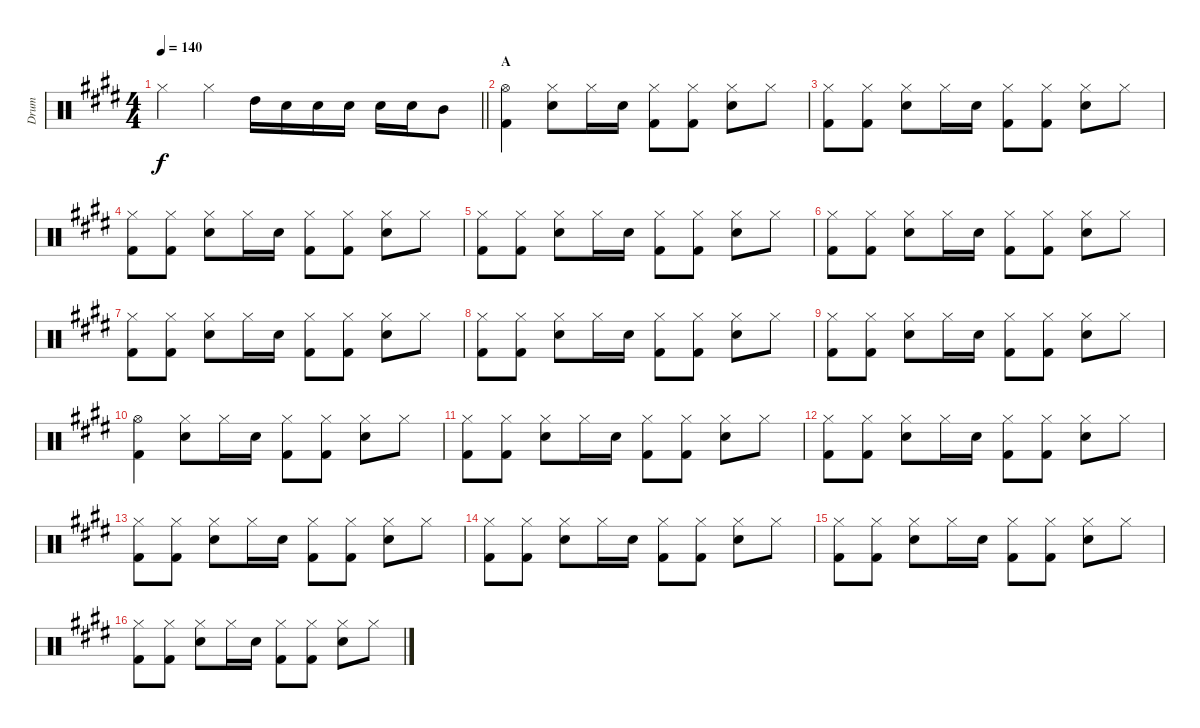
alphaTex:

\track ("Drum" "Drum") {instrument percussion}
\staff {score}
\articulation defaults
\ts (4 4)
\tempo 140
\clef neutral
\barLineRight lightlight
\ks c#minor "Hi-Hat (closed)".4{dy f} "Hi-Hat (closed)".4 "High Tom (hit)".16 "Snare (hit) 2".16 "Snare (hit) 2".16 "Snare (hit) 2".16 "Snare (hit) 2".16 "Snare (hit) 2".16 "Mid Tom (hit)".8
|
\section ("" "A")
("Hi-Hat (open)" "Kick (hit) 2").4 ("Hi-Hat (closed)" "Snare (hit) 2").8 "Hi-Hat (closed)".16 "Snare (hit) 2".16 ("Hi-Hat (closed)" "Kick (hit) 2").8 ("Hi-Hat (closed)" "Kick (hit) 2").8 ("Hi-Hat (closed)" "Snare (hit) 2").8 "Hi-Hat (closed)".8 |
("Hi-Hat (closed)" "Kick (hit) 2").8 ("Hi-Hat (closed)" "Kick (hit) 2").8 ("Hi-Hat (closed)" "Snare (hit) 2").8 "Hi-Hat (closed)".16 "Snare (hit) 2".16 ("Hi-Hat (closed)" "Kick (hit) 2").8 ("Hi-Hat (closed)" "Kick (hit) 2").8 ("Hi-Hat (closed)" "Snare (hit) 2").8 "Hi-Hat (closed)".8 |
("Hi-Hat (closed)" "Kick (hit) 2").8 ("Hi-Hat (closed)" "Kick (hit) 2").8 ("Hi-Hat (closed)" "Snare (hit) 2").8 "Hi-Hat (closed)".16 "Snare (hit) 2".16 ("Hi-Hat (closed)" "Kick (hit) 2").8 ("Hi-Hat (closed)" "Kick (hit) 2").8 ("Hi-Hat (closed)" "Snare (hit) 2").8 "Hi-Hat (closed)".8 |
("Hi-Hat (closed)" "Kick (hit) 2").8 ("Hi-Hat (closed)" "Kick (hit) 2").8 ("Hi-Hat (closed)" "Snare (hit) 2").8 "Hi-Hat (closed)".16 "Snare (hit) 2".16 ("Hi-Hat (closed)" "Kick (hit) 2").8 ("Hi-Hat (closed)" "Kick (hit) 2").8 ("Hi-Hat (closed)" "Snare (hit) 2").8 "Hi-Hat (closed)".8 |
("Hi-Hat (closed)" "Kick (hit) 2").8 ("Hi-Hat (closed)" "Kick (hit) 2").8 ("Hi-Hat (closed)" "Snare (hit) 2").8 "Hi-Hat (closed)".16 "Snare (hit) 2".16 ("Hi-Hat (closed)" "Kick (hit) 2").8 ("Hi-Hat (closed)" "Kick (hit) 2").8 ("Hi-Hat (closed)" "Snare (hit) 2").8 "Hi-Hat (closed)".8 |
("Hi-Hat (closed)" "Kick (hit) 2").8 ("Hi-Hat (closed)" "Kick (hit) 2").8 ("Hi-Hat (closed)" "Snare (hit) 2").8 "Hi-Hat (closed)".16 "Snare (hit) 2".16 ("Hi-Hat (closed)" "Kick (hit) 2").8 ("Hi-Hat (closed)" "Kick (hit) 2").8 ("Hi-Hat (closed)" "Snare (hit) 2").8 "Hi-Hat (closed)".8 |
("Hi-Hat (closed)" "Kick (hit) 2").8 ("Hi-Hat (closed)" "Kick (hit) 2").8 ("Hi-Hat (closed)" "Snare (hit) 2").8 "Hi-Hat (closed)".16 "Snare (hit) 2".16 ("Hi-Hat (closed)" "Kick (hit) 2").8 ("Hi-Hat (closed)" "Kick (hit) 2").8 ("Hi-Hat (closed)" "Snare (hit) 2").8 "Hi-Hat (closed)".8 |
("Hi-Hat (closed)" "Kick (hit) 2").8 ("Hi-Hat (closed)" "Kick (hit) 2").8 ("Hi-Hat (closed)" "Snare (hit) 2").8 "Hi-Hat (closed)".16 "Snare (hit) 2".16 ("Hi-Hat (closed)" "Kick (hit) 2").8 ("Hi-Hat (closed)" "Kick (hit) 2").8 ("Hi-Hat (closed)" "Snare (hit) 2").8 "Hi-Hat (closed)".8 |
("Hi-Hat (open)" "Kick (hit) 2").4 ("Hi-Hat (closed)" "Snare (hit) 2").8 "Hi-Hat (closed)".16 "Snare (hit) 2".16 ("Hi-Hat (closed)" "Kick (hit) 2").8 ("Hi-Hat (closed)" "Kick (hit) 2").8 ("Hi-Hat (closed)" "Snare (hit) 2").8 "Hi-Hat (closed)".8 |
("Hi-Hat (closed)" "Kick (hit) 2").8 ("Hi-Hat (closed)" "Kick (hit) 2").8 ("Hi-Hat (closed)" "Snare (hit) 2").8 "Hi-Hat (closed)".16 "Snare (hit) 2".16 ("Hi-Hat (closed)" "Kick (hit) 2").8 ("Hi-Hat (closed)" "Kick (hit) 2").8 ("Hi-Hat (closed)" "Snare (hit) 2").8 "Hi-Hat (closed)".8 |
("Hi-Hat (closed)" "Kick (hit) 2").8 ("Hi-Hat (closed)" "Kick (hit) 2").8 ("Hi-Hat (closed)" "Snare (hit) 2").8 "Hi-Hat (closed)".16 "Snare (hit) 2".16 ("Hi-Hat (closed)" "Kick (hit) 2").8 ("Hi-Hat (closed)" "Kick (hit) 2").8 ("Hi-Hat (closed)" "Snare (hit) 2").8 "Hi-Hat (closed)".8 |
("Hi-Hat (closed)" "Kick (hit) 2").8 ("Hi-Hat (closed)" "Kick (hit) 2").8 ("Hi-Hat (closed)" "Snare (hit) 2").8 "Hi-Hat (closed)".16 "Snare (hit) 2".16 ("Hi-Hat (closed)" "Kick (hit) 2").8 ("Hi-Hat (closed)" "Kick (hit) 2").8 ("Hi-Hat (closed)" "Snare (hit) 2").8 "Hi-Hat (closed)".8 |
("Hi-Hat (closed)" "Kick (hit) 2").8 ("Hi-Hat (closed)" "Kick (hit) 2").8 ("Hi-Hat (closed)" "Snare (hit) 2").8 "Hi-Hat (closed)".16 "Snare (hit) 2".16 ("Hi-Hat (closed)" "Kick (hit) 2").8 ("Hi-Hat (closed)" "Kick (hit) 2").8 ("Hi-Hat (closed)" "Snare (hit) 2").8 "Hi-Hat (closed)".8 |
("Hi-Hat (closed)" "Kick (hit) 2").8 ("Hi-Hat (closed)" "Kick (hit) 2").8 ("Hi-Hat (closed)" "Snare (hit) 2").8 "Hi-Hat (closed)".16 "Snare (hit) 2".16 ("Hi-Hat (closed)" "Kick (hit) 2").8 ("Hi-Hat (closed)" "Kick (hit) 2").8 ("Hi-Hat (closed)" "Snare (hit) 2").8 "Hi-Hat (closed)".8 |
("Hi-Hat (closed)" "Kick (hit) 2").8 ("Hi-Hat (closed)" "Kick (hit) 2").8 ("Hi-Hat (closed)" "Snare (hit) 2").8 "Hi-Hat (closed)".16 "Snare (hit) 2".16 ("Hi-Hat (closed)" "Kick (hit) 2").8 ("Hi-Hat (closed)" "Kick (hit) 2").8 ("Hi-Hat (closed)" "Snare (hit) 2").8 "Hi-Hat (closed)".8
